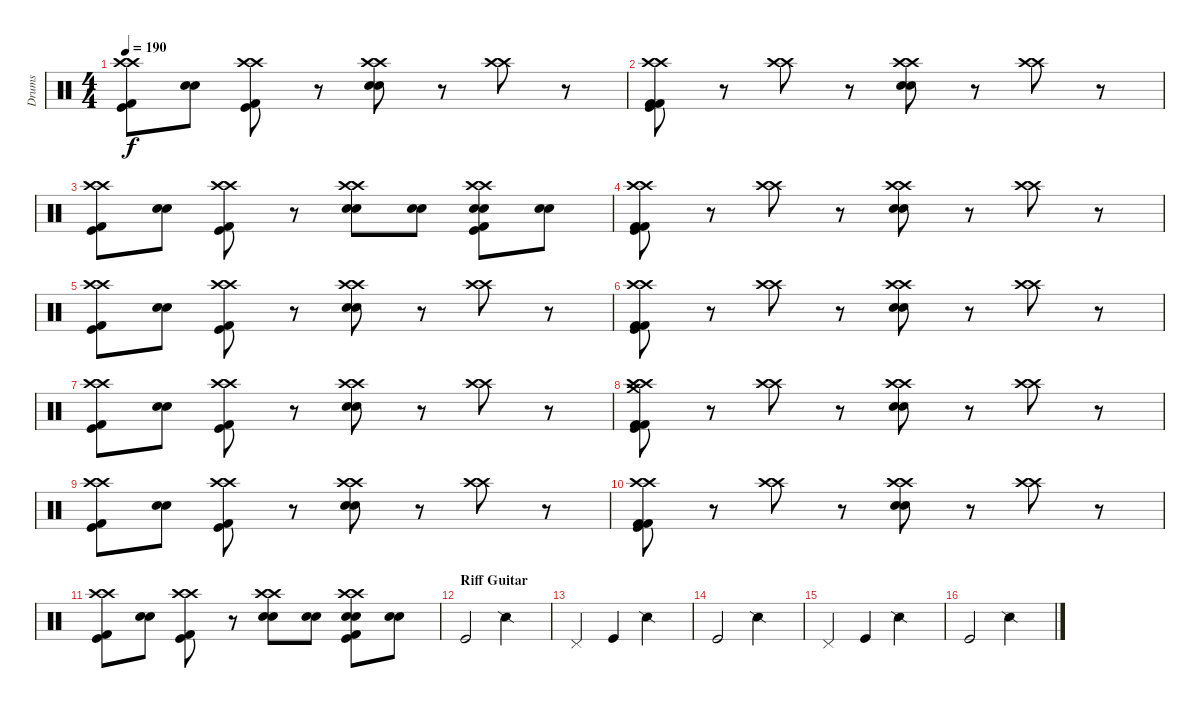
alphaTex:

\track ("Drums" "Drums") {instrument percussion}
\staff {score}
\articulation defaults
\ts (4 4)
\tempo 190
\clef neutral
\ks c
("Crash high (hit)" "Crash high (hit)" "Kick (hit) 2" "Kick (hit)").8{dy f} ("Electric Snare (hit)" "Electric Snare (hit)").8 ("Crash high (hit)" "Crash high (hit)" "Kick (hit) 2" "Kick (hit)").8 r.8 ("Crash high (hit)" "Crash high (hit)" "Electric Snare (hit)" "Electric Snare (hit)").8 r.8 ("Crash high (hit)" "Crash high (hit)").8 r.8 |
("Crash high (hit)" "Crash high (hit)" "Kick (hit) 2" "Kick (hit) 2" "Kick (hit)").8 r.8 ("Crash high (hit)" "Crash high (hit)").8 r.8 ("Crash high (hit)" "Crash high (hit)" "Electric Snare (hit)" "Electric Snare (hit)").8 r.8 ("Crash high (hit)" "Crash high (hit)").8 r.8 |
("Crash high (hit)" "Crash high (hit)" "Kick (hit) 2" "Kick (hit)").8 ("Electric Snare (hit)" "Electric Snare (hit)").8 ("Crash high (hit)" "Crash high (hit)" "Kick (hit) 2" "Kick (hit)").8 r.8 ("Crash high (hit)" "Crash high (hit)" "Electric Snare (hit)" "Electric Snare (hit)").8 ("Electric Snare (hit)" "Electric Snare (hit)").8 ("Crash high (hit)" "Crash high (hit)" "Electric Snare (hit)" "Electric Snare (hit)" "Kick (hit) 2" "Kick (hit)").8 ("Electric Snare (hit)" "Electric Snare (hit)").8 |
("Crash high (hit)" "Crash high (hit)" "Kick (hit) 2" "Kick (hit) 2" "Kick (hit)").8 r.8 ("Crash high (hit)" "Crash high (hit)").8 r.8 ("Crash high (hit)" "Crash high (hit)" "Electric Snare (hit)" "Electric Snare (hit)").8 r.8 ("Crash high (hit)" "Crash high (hit)").8 r.8 |
("Crash high (hit)" "Crash high (hit)" "Kick (hit) 2" "Kick (hit)").8 ("Electric Snare (hit)" "Electric Snare (hit)").8 ("Crash high (hit)" "Crash high (hit)" "Kick (hit) 2" "Kick (hit)").8 r.8 ("Crash high (hit)" "Crash high (hit)" "Electric Snare (hit)" "Electric Snare (hit)").8 r.8 ("Crash high (hit)" "Crash high (hit)").8 r.8 |
("Crash high (hit)" "Crash high (hit)" "Kick (hit) 2" "Kick (hit) 2" "Kick (hit)").8 r.8 ("Crash high (hit)" "Crash high (hit)").8 r.8 ("Crash high (hit)" "Crash high (hit)" "Electric Snare (hit)" "Electric Snare (hit)").8 r.8 ("Crash high (hit)" "Crash high (hit)").8 r.8 |
("Crash high (hit)" "Crash high (hit)" "Kick (hit) 2" "Kick (hit)").8 ("Electric Snare (hit)" "Electric Snare (hit)").8 ("Crash high (hit)" "Crash high (hit)" "Kick (hit) 2" "Kick (hit)").8 r.8 ("Crash high (hit)" "Crash high (hit)" "Electric Snare (hit)" "Electric Snare (hit)").8 r.8 ("Crash high (hit)" "Crash high (hit)").8 r.8 |
("Crash high (hit)" "Crash high (hit)" "Crash medium (hit)" "Kick (hit) 2" "Kick (hit) 2" "Kick (hit)").8 r.8 ("Crash high (hit)" "Crash high (hit)").8 r.8 ("Crash high (hit)" "Crash high (hit)" "Electric Snare (hit)" "Electric Snare (hit)").8 r.8 ("Crash high (hit)" "Crash high (hit)").8 r.8 |
("Crash high (hit)" "Crash high (hit)" "Kick (hit) 2" "Kick (hit)").8 ("Electric Snare (hit)" "Electric Snare (hit)").8 ("Crash high (hit)" "Crash high (hit)" "Kick (hit) 2" "Kick (hit)").8 r.8 ("Crash high (hit)" "Crash high (hit)" "Electric Snare (hit)" "Electric Snare (hit)").8 r.8 ("Crash high (hit)" "Crash high (hit)").8 r.8 |
("Crash high (hit)" "Crash high (hit)" "Kick (hit) 2" "Kick (hit) 2" "Kick (hit)").8 r.8 ("Crash high (hit)" "Crash high (hit)").8 r.8 ("Crash high (hit)" "Crash high (hit)" "Electric Snare (hit)" "Electric Snare (hit)").8 r.8 ("Crash high (hit)" "Crash high (hit)").8 r.8 |
("Crash high (hit)" "Crash high (hit)" "Kick (hit) 2" "Kick (hit)").8 ("Electric Snare (hit)" "Electric Snare (hit)").8 ("Crash high (hit)" "Crash high (hit)" "Kick (hit) 2" "Kick (hit)").8 r.8 ("Crash high (hit)" "Crash high (hit)" "Electric Snare (hit)" "Electric Snare (hit)").8 ("Electric Snare (hit)" "Electric Snare (hit)").8 ("Crash high (hit)" "Crash high (hit)" "Electric Snare (hit)" "Electric Snare (hit)" "Kick (hit) 2" "Kick (hit)").8 ("Electric Snare (hit)" "Electric Snare (hit)").8 |
\section ("" "Riff Guitar")
"Kick (hit)".2 "Snare (side stick) 2".2 |
"Pedal Hi-Hat (hit)".4 "Kick (hit)".4 "Snare (side stick) 2".2 |
"Kick (hit)".2 "Snare (side stick) 2".2 |
"Pedal Hi-Hat (hit)".4 "Kick (hit)".4 "Snare (side stick) 2".2 |
"Kick (hit)".2 "Snare (side stick) 2".2
